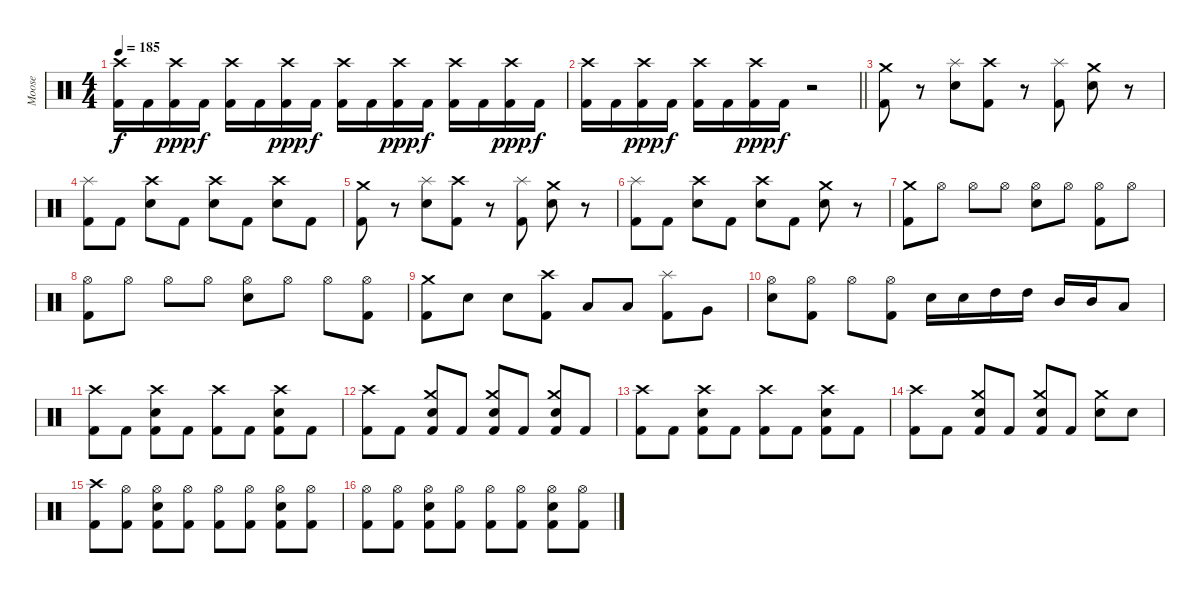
\track ("Moose" "Moose") {instrument percussion}
\staff {score}
\articulation defaults
\ts (4 4)
\tempo 185
\clef neutral
\ks c
("Crash high (hit)" "Kick (hit) 2").16{dy f} "Kick (hit) 2".16 ("Crash high (hit)" "Kick (hit) 2").16{dy ppp} "Kick (hit) 2".16{dy f} ("Crash high (hit)" "Kick (hit) 2").16 "Kick (hit) 2".16 ("Crash high (hit)" "Kick (hit) 2").16{dy ppp} "Kick (hit) 2".16{dy f} ("Crash high (hit)" "Kick (hit) 2").16 "Kick (hit) 2".16 ("Crash high (hit)" "Kick (hit) 2").16{dy ppp} "Kick (hit) 2".16{dy f} ("Crash high (hit)" "Kick (hit) 2").16 "Kick (hit) 2".16 ("Crash high (hit)" "Kick (hit) 2").16{dy ppp} "Kick (hit) 2".16{dy f} |
\barLineRight lightlight
("Crash high (hit)" "Kick (hit) 2").16 "Kick (hit) 2".16 ("Crash high (hit)" "Kick (hit) 2").16{dy ppp} "Kick (hit) 2".16{dy f} ("Crash high (hit)" "Kick (hit) 2").16 "Kick (hit) 2".16 ("Crash high (hit)" "Kick (hit) 2").16{dy ppp} "Kick (hit) 2".16{dy f} r.2 |
("Crash medium (hit)" "Kick (hit) 2").8 r.8 ("Splash (hit)" "Electric Snare (hit)").8 ("Crash high (hit)" "Kick (hit) 2").8 r.8 ("Splash (hit)" "Kick (hit) 2").8 ("Crash medium (hit)" "Electric Snare (hit)").8 r.8 |
("Splash (hit)" "Kick (hit) 2").8 "Kick (hit) 2".8 ("Crash high (hit)" "Electric Snare (hit)").8 "Kick (hit) 2".8 ("Crash high (hit)" "Electric Snare (hit)").8 "Kick (hit) 2".8 ("Crash high (hit)" "Electric Snare (hit)").8 "Kick (hit) 2".8 |
("Crash medium (hit)" "Kick (hit) 2").8 r.8 ("Splash (hit)" "Electric Snare (hit)").8 ("Crash high (hit)" "Kick (hit) 2").8 r.8 ("Splash (hit)" "Kick (hit) 2").8 ("Crash medium (hit)" "Electric Snare (hit)").8 r.8 |
("Splash (hit)" "Kick (hit) 2").8 "Kick (hit) 2".8 ("Crash high (hit)" "Electric Snare (hit)").8 "Kick (hit) 2".8 ("Crash high (hit)" "Electric Snare (hit)").8 "Kick (hit) 2".8 ("Crash medium (hit)" "Electric Snare (hit)").8 r.8 |
("Crash medium (hit)" "Kick (hit) 2").8 "Hi-Hat (open)".8 "Hi-Hat (open)".8 "Hi-Hat (open)".8 ("Hi-Hat (open)" "Electric Snare (hit)").8 "Hi-Hat (open)".8 ("Hi-Hat (open)" "Kick (hit) 2").8 "Hi-Hat (open)".8 |
("Hi-Hat (open)" "Kick (hit) 2").8 "Hi-Hat (open)".8 "Hi-Hat (open)".8 "Hi-Hat (open)".8 ("Hi-Hat (open)" "Electric Snare (hit)").8 "Hi-Hat (open)".8 "Hi-Hat (open)".8 ("Hi-Hat (open)" "Kick (hit) 2").8 |
("Crash medium (hit)" "Kick (hit) 2").8 "Electric Snare (hit)".8 "Electric Snare (hit)".8 ("Crash high (hit)" "Kick (hit) 2").8 "Low Tom (hit)".8 "Low Tom (hit)".8 ("Splash (hit)" "Kick (hit) 2").8 "Very Low Tom (hit)".8 |
("Hi-Hat (open)" "Electric Snare (hit)").8 ("Hi-Hat (open)" "Kick (hit) 2").8 "Hi-Hat (open)".8 ("Hi-Hat (open)" "Kick (hit) 2").8 "Electric Snare (hit)".16 "Electric Snare (hit)".16 "High Tom (hit)".16 "High Tom (hit)".16 "Mid Tom (hit)".16 "Mid Tom (hit)".16 "Low Tom (hit)".8 |
("Crash high (hit)" "Kick (hit) 2").8 "Kick (hit) 2".8 ("Crash high (hit)" "Electric Snare (hit)" "Kick (hit) 2").8 "Kick (hit) 2".8 ("Crash high (hit)" "Kick (hit) 2").8 "Kick (hit) 2".8 ("Crash high (hit)" "Electric Snare (hit)" "Kick (hit) 2").8 "Kick (hit) 2".8 |
("Crash high (hit)" "Kick (hit) 2").8 "Kick (hit) 2".8 ("Crash medium (hit)" "Electric Snare (hit)" "Kick (hit) 2").8 "Kick (hit) 2".8 ("Crash medium (hit)" "Electric Snare (hit)" "Kick (hit) 2").8 "Kick (hit) 2".8 ("Crash medium (hit)" "Electric Snare (hit)" "Kick (hit) 2").8 "Kick (hit) 2".8 |
("Crash high (hit)" "Kick (hit) 2").8 "Kick (hit) 2".8 ("Crash high (hit)" "Electric Snare (hit)" "Kick (hit) 2").8 "Kick (hit) 2".8 ("Crash high (hit)" "Kick (hit) 2").8 "Kick (hit) 2".8 ("Crash high (hit)" "Electric Snare (hit)" "Kick (hit) 2").8 "Kick (hit) 2".8 |
("Crash high (hit)" "Kick (hit) 2").8 "Kick (hit) 2".8 ("Crash medium (hit)" "Electric Snare (hit)" "Kick (hit) 2").8 "Kick (hit) 2".8 ("Crash medium (hit)" "Electric Snare (hit)" "Kick (hit) 2").8 "Kick (hit) 2".8 ("Crash medium (hit)" "Electric Snare (hit)").8 "Electric Snare (hit)".8 |
("Crash high (hit)" "Kick (hit) 2").8 ("Hi-Hat (open)" "Kick (hit) 2").8 ("Hi-Hat (open)" "Electric Snare (hit)" "Kick (hit) 2").8 ("Hi-Hat (open)" "Kick (hit) 2").8 ("Hi-Hat (open)" "Kick (hit) 2").8 ("Hi-Hat (open)" "Kick (hit) 2").8 ("Hi-Hat (open)" "Electric Snare (hit)" "Kick (hit) 2").8 ("Hi-Hat (open)" "Kick (hit) 2").8 |
("Hi-Hat (open)" "Kick (hit) 2").8 ("Hi-Hat (open)" "Kick (hit) 2").8 ("Hi-Hat (open)" "Electric Snare (hit)" "Kick (hit) 2").8 ("Hi-Hat (open)" "Kick (hit) 2").8 ("Hi-Hat (open)" "Kick (hit) 2").8 ("Hi-Hat (open)" "Kick (hit) 2").8 ("Hi-Hat (open)" "Electric Snare (hit)" "Kick (hit) 2").8 ("Hi-Hat (open)" "Kick (hit) 2").8
